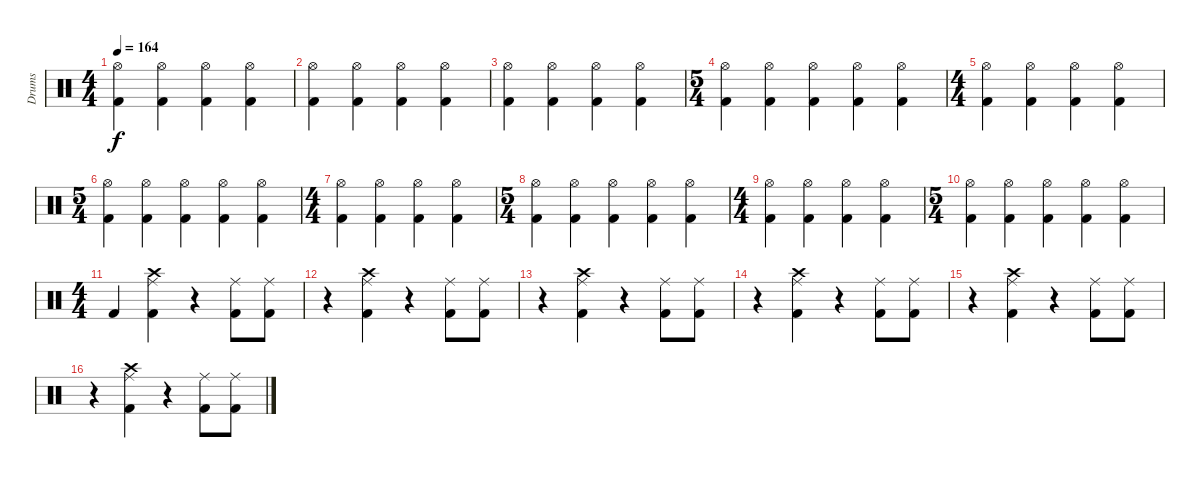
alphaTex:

\track ("Drums " "Drums ") {instrument percussion}
\staff {score}
\articulation defaults
\ts (4 4)
\tempo 164
\clef neutral
\ks c
("Hi-Hat (open)" "Kick (hit) 2").4{dy f} ("Hi-Hat (open)" "Kick (hit) 2").4 ("Kick (hit) 2" "Hi-Hat (open)").4 ("Kick (hit) 2" "Hi-Hat (open)").4 |
("Hi-Hat (open)" "Kick (hit) 2").4 ("Hi-Hat (open)" "Kick (hit) 2").4 ("Kick (hit) 2" "Hi-Hat (open)").4 ("Kick (hit) 2" "Hi-Hat (open)").4 |
("Hi-Hat (open)" "Kick (hit) 2").4 ("Hi-Hat (open)" "Kick (hit) 2").4 ("Kick (hit) 2" "Hi-Hat (open)").4 ("Kick (hit) 2" "Hi-Hat (open)").4 |
\ts (5 4)
("Hi-Hat (open)" "Kick (hit) 2").4 ("Hi-Hat (open)" "Kick (hit) 2").4 ("Kick (hit) 2" "Hi-Hat (open)").4 ("Kick (hit) 2" "Hi-Hat (open)").4 ("Hi-Hat (open)" "Kick (hit) 2").4 |
\ts (4 4)
("Hi-Hat (open)" "Kick (hit) 2").4 ("Kick (hit) 2" "Hi-Hat (open)").4 ("Kick (hit) 2" "Hi-Hat (open)").4 ("Hi-Hat (open)" "Kick (hit) 2").4 |
\ts (5 4)
("Hi-Hat (open)" "Kick (hit) 2").4 ("Kick (hit) 2" "Hi-Hat (open)").4 ("Kick (hit) 2" "Hi-Hat (open)").4 ("Hi-Hat (open)" "Kick (hit) 2").4 ("Hi-Hat (open)" "Kick (hit) 2").4 |
\ts (4 4)
("Kick (hit) 2" "Hi-Hat (open)").4 ("Kick (hit) 2" "Hi-Hat (open)").4 ("Hi-Hat (open)" "Kick (hit) 2").4 ("Hi-Hat (open)" "Kick (hit) 2").4 |
\ts (5 4)
("Kick (hit) 2" "Hi-Hat (open)").4 ("Kick (hit) 2" "Hi-Hat (open)").4 ("Hi-Hat (open)" "Kick (hit) 2").4 ("Hi-Hat (open)" "Kick (hit) 2").4 ("Kick (hit) 2" "Hi-Hat (open)").4 |
\ts (4 4)
("Kick (hit) 2" "Hi-Hat (open)").4 ("Hi-Hat (open)" "Kick (hit) 2").4 ("Hi-Hat (open)" "Kick (hit) 2").4 ("Kick (hit) 2" "Hi-Hat (open)").4 |
\ts (5 4)
("Kick (hit) 2" "Hi-Hat (open)").4 ("Hi-Hat (open)" "Kick (hit) 2").4 ("Kick (hit) 2" "Hi-Hat (open)").4 ("Kick (hit) 2" "Hi-Hat (open)").4 ("Kick (hit) 2" "Hi-Hat (open)").4 |
\ts (4 4)
"Kick (hit) 2".4 ("Kick (hit) 2" "Crash high (hit)" "Ride (middle)").4 r.4 ("Kick (hit) 2" "Ride (middle)").8 ("Kick (hit) 2" "Ride (middle)").8 |
r.4 ("Ride (middle)" "Crash high (hit)" "Kick (hit) 2").4 r.4 ("Kick (hit) 2" "Ride (middle)").8 ("Kick (hit) 2" "Ride (middle)").8 |
r.4 ("Ride (middle)" "Crash high (hit)" "Kick (hit) 2").4 r.4 ("Kick (hit) 2" "Ride (middle)").8 ("Kick (hit) 2" "Ride (middle)").8 |
r.4 ("Ride (middle)" "Crash high (hit)" "Kick (hit) 2").4 r.4 ("Kick (hit) 2" "Ride (middle)").8 ("Kick (hit) 2" "Ride (middle)").8 |
r.4 ("Ride (middle)" "Crash high (hit)" "Kick (hit) 2").4 r.4 ("Kick (hit) 2" "Ride (middle)").8 ("Kick (hit) 2" "Ride (middle)").8 |
r.4 ("Ride (middle)" "Crash high (hit)" "Kick (hit) 2").4 r.4 ("Kick (hit) 2" "Ride (middle)").8 ("Kick (hit) 2" "Ride (middle)").8
